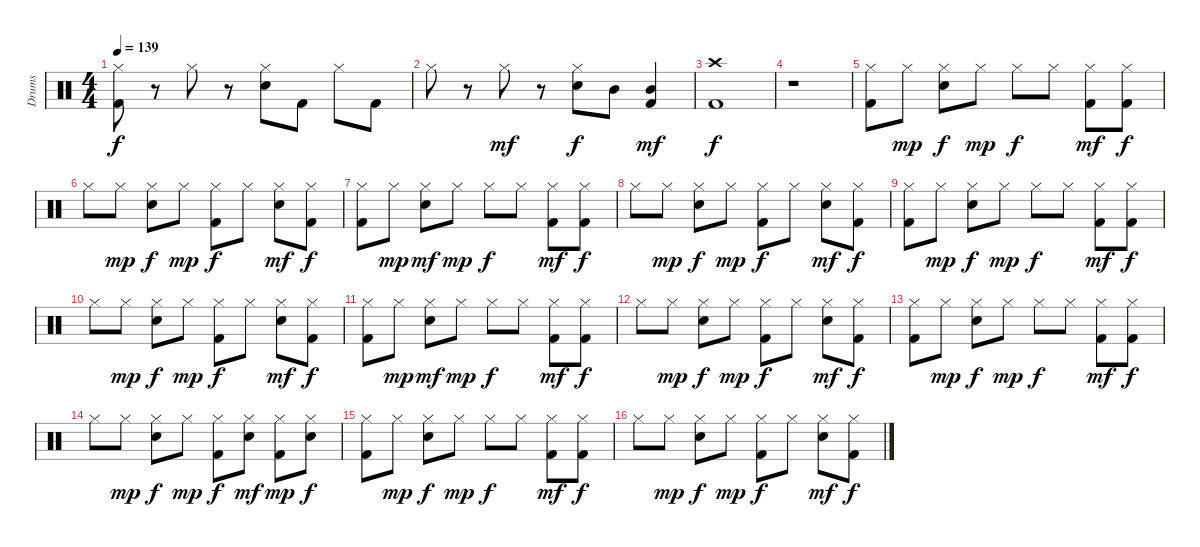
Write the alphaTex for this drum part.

\track ("Drums" "Drums") {instrument percussion}
\staff {score}
\articulation defaults
\ts (4 4)
\tempo 139
\clef neutral
\ks c
("Hi-Hat (closed)" "Kick (hit) 2").8{dy f} r.8 "Hi-Hat (closed)".8 r.8 ("Hi-Hat (closed)" "Snare (hit) 2").8 "Kick (hit) 2".8 "Hi-Hat (closed)".8 "Kick (hit) 2".8 |
"Hi-Hat (closed)".8 r.8 "Hi-Hat (closed)".8{dy mf} r.8 ("Hi-Hat (closed)" "Snare (hit) 2").8{dy f} "Mid Tom (hit)".8 ("Mid Tom (hit)" "Kick (hit) 2").4{dy mf} |
("Crash high (hit)" "Kick (hit) 2").1{dy f} |
r.1 |
("Hi-Hat (closed)" "Kick (hit) 2").8 "Hi-Hat (closed)".8{dy mp} ("Hi-Hat (closed)" "Snare (hit) 2").8{dy f} "Hi-Hat (closed)".8{dy mp} "Hi-Hat (closed)".8{dy f} "Hi-Hat (closed)".8 ("Hi-Hat (closed)" "Kick (hit) 2").8{dy mf} ("Hi-Hat (closed)" "Kick (hit) 2").8{dy f} |
"Hi-Hat (closed)".8 "Hi-Hat (closed)".8{dy mp} ("Hi-Hat (closed)" "Snare (hit) 2").8{dy f} "Hi-Hat (closed)".8{dy mp} ("Hi-Hat (closed)" "Kick (hit) 2").8{dy f} "Hi-Hat (closed)".8 ("Hi-Hat (closed)" "Snare (hit) 2").8{dy mf} ("Hi-Hat (closed)" "Kick (hit) 2").8{dy f} |
("Hi-Hat (closed)" "Kick (hit) 2").8 "Hi-Hat (closed)".8{dy mp} ("Hi-Hat (closed)" "Snare (hit) 2").8{dy mf} "Hi-Hat (closed)".8{dy mp} "Hi-Hat (closed)".8{dy f} "Hi-Hat (closed)".8 ("Hi-Hat (closed)" "Kick (hit) 2").8{dy mf} ("Hi-Hat (closed)" "Kick (hit) 2").8{dy f} |
"Hi-Hat (closed)".8 "Hi-Hat (closed)".8{dy mp} ("Hi-Hat (closed)" "Snare (hit) 2").8{dy f} "Hi-Hat (closed)".8{dy mp} ("Hi-Hat (closed)" "Kick (hit) 2").8{dy f} "Hi-Hat (closed)".8 ("Hi-Hat (closed)" "Snare (hit) 2").8{dy mf} ("Hi-Hat (closed)" "Kick (hit) 2").8{dy f} |
("Hi-Hat (closed)" "Kick (hit) 2").8 "Hi-Hat (closed)".8{dy mp} ("Hi-Hat (closed)" "Snare (hit) 2").8{dy f} "Hi-Hat (closed)".8{dy mp} "Hi-Hat (closed)".8{dy f} "Hi-Hat (closed)".8 ("Hi-Hat (closed)" "Kick (hit) 2").8{dy mf} ("Hi-Hat (closed)" "Kick (hit) 2").8{dy f} |
"Hi-Hat (closed)".8 "Hi-Hat (closed)".8{dy mp} ("Hi-Hat (closed)" "Snare (hit) 2").8{dy f} "Hi-Hat (closed)".8{dy mp} ("Hi-Hat (closed)" "Kick (hit) 2").8{dy f} "Hi-Hat (closed)".8 ("Hi-Hat (closed)" "Snare (hit) 2").8{dy mf} ("Hi-Hat (closed)" "Kick (hit) 2").8{dy f} |
("Hi-Hat (closed)" "Kick (hit) 2").8 "Hi-Hat (closed)".8{dy mp} ("Hi-Hat (closed)" "Snare (hit) 2").8{dy mf} "Hi-Hat (closed)".8{dy mp} "Hi-Hat (closed)".8{dy f} "Hi-Hat (closed)".8 ("Hi-Hat (closed)" "Kick (hit) 2").8{dy mf} ("Hi-Hat (closed)" "Kick (hit) 2").8{dy f} |
"Hi-Hat (closed)".8 "Hi-Hat (closed)".8{dy mp} ("Hi-Hat (closed)" "Snare (hit) 2").8{dy f} "Hi-Hat (closed)".8{dy mp} ("Hi-Hat (closed)" "Kick (hit) 2").8{dy f} "Hi-Hat (closed)".8 ("Hi-Hat (closed)" "Snare (hit) 2").8{dy mf} ("Hi-Hat (closed)" "Kick (hit) 2").8{dy f} |
("Hi-Hat (closed)" "Kick (hit) 2").8 "Hi-Hat (closed)".8{dy mp} ("Hi-Hat (closed)" "Snare (hit) 2").8{dy f} "Hi-Hat (closed)".8{dy mp} "Hi-Hat (closed)".8{dy f} "Hi-Hat (closed)".8 ("Hi-Hat (closed)" "Kick (hit) 2").8{dy mf} ("Hi-Hat (closed)" "Kick (hit) 2").8{dy f} |
"Hi-Hat (closed)".8 "Hi-Hat (closed)".8{dy mp} ("Hi-Hat (closed)" "Snare (hit) 2").8{dy f} "Hi-Hat (closed)".8{dy mp} ("Hi-Hat (closed)" "Kick (hit) 2").8{dy f} ("Hi-Hat (closed)" "Snare (hit) 2").8{dy mf} ("Hi-Hat (closed)" "Kick (hit) 2").8{dy mp} ("Hi-Hat (closed)" "Snare (hit) 2").8{dy f} |
("Hi-Hat (closed)" "Kick (hit) 2").8 "Hi-Hat (closed)".8{dy mp} ("Hi-Hat (closed)" "Snare (hit) 2").8{dy f} "Hi-Hat (closed)".8{dy mp} "Hi-Hat (closed)".8{dy f} "Hi-Hat (closed)".8 ("Hi-Hat (closed)" "Kick (hit) 2").8{dy mf} ("Hi-Hat (closed)" "Kick (hit) 2").8{dy f} |
"Hi-Hat (closed)".8 "Hi-Hat (closed)".8{dy mp} ("Hi-Hat (closed)" "Snare (hit) 2").8{dy f} "Hi-Hat (closed)".8{dy mp} ("Hi-Hat (closed)" "Kick (hit) 2").8{dy f} "Hi-Hat (closed)".8 ("Hi-Hat (closed)" "Snare (hit) 2").8{dy mf} ("Hi-Hat (closed)" "Kick (hit) 2").8{dy f}
